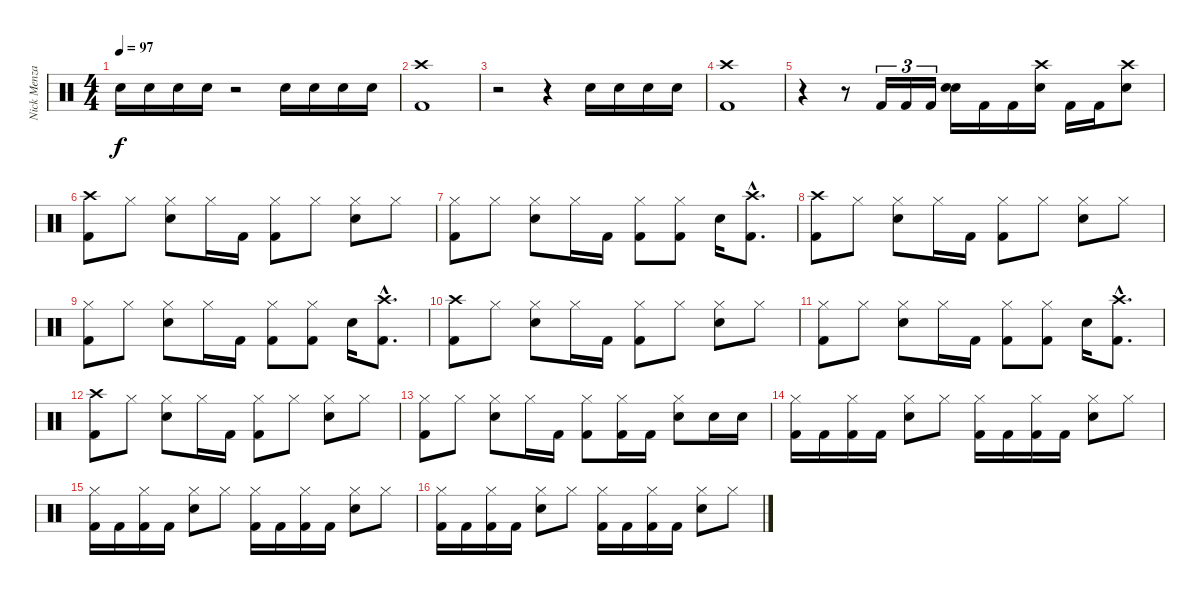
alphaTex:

\track ("Nick Menza" "Nick Menza") {instrument percussion}
\staff {score}
\articulation defaults
\ts (4 4)
\tempo 97
\clef neutral
\ks c "Electric Snare (hit)".16{dy f} "Electric Snare (hit)".16 "Electric Snare (hit)".16 "Electric Snare (hit)".16
r.2 "Electric Snare (hit)".16 "Electric Snare (hit)".16 "Electric Snare (hit)".16 "Electric Snare (hit)".16 |
("Crash high (hit)" "Kick (hit) 2").1 |
r.2 r.4 "Electric Snare (hit)".16 "Electric Snare (hit)".16 "Electric Snare (hit)".16 "Electric Snare (hit)".16 |
("Crash high (hit)" "Kick (hit) 2").1 |
r.4 r.8 "Kick (hit) 2".16{tu (3 2)} "Kick (hit) 2".16{tu (3 2)} "Kick (hit) 2".16{tu (3 2)} ("Electric Snare (hit)" "Electric Snare (hit)").16 "Kick (hit) 2".16 "Kick (hit) 2".16 ("Crash high (hit)" "Electric Snare (hit)").16 "Kick (hit) 2".16 "Kick (hit) 2".16 ("Crash high (hit)" "Electric Snare (hit)").8 |
("Crash high (hit)" "Kick (hit) 2").8 "Hi-Hat (closed)".8 ("Hi-Hat (closed)" "Electric Snare (hit)").8 "Hi-Hat (closed)".16 "Kick (hit) 2".16 ("Hi-Hat (closed)" "Kick (hit) 2").8 "Hi-Hat (closed)".8 ("Hi-Hat (closed)" "Electric Snare (hit)").8 "Hi-Hat (closed)".8 |
("Hi-Hat (closed)" "Kick (hit) 2").8 "Hi-Hat (closed)".8 ("Hi-Hat (closed)" "Electric Snare (hit)").8 "Hi-Hat (closed)".16 "Kick (hit) 2".16 ("Hi-Hat (closed)" "Kick (hit) 2").8 ("Hi-Hat (closed)" "Kick (hit) 2").8 "Electric Snare (hit)".16 ("Crash high (hit)"{hac} "Kick (hit) 2"{hac}).8{d} |
("Crash high (hit)" "Kick (hit) 2").8 "Hi-Hat (closed)".8 ("Hi-Hat (closed)" "Electric Snare (hit)").8 "Hi-Hat (closed)".16 "Kick (hit) 2".16 ("Hi-Hat (closed)" "Kick (hit) 2").8 "Hi-Hat (closed)".8 ("Hi-Hat (closed)" "Electric Snare (hit)").8 "Hi-Hat (closed)".8 |
("Hi-Hat (closed)" "Kick (hit) 2").8 "Hi-Hat (closed)".8 ("Hi-Hat (closed)" "Electric Snare (hit)").8 "Hi-Hat (closed)".16 "Kick (hit) 2".16 ("Hi-Hat (closed)" "Kick (hit) 2").8 ("Hi-Hat (closed)" "Kick (hit) 2").8 "Electric Snare (hit)".16 ("Crash high (hit)"{hac} "Kick (hit) 2"{hac}).8{d} |
("Crash high (hit)" "Kick (hit) 2").8 "Hi-Hat (closed)".8 ("Hi-Hat (closed)" "Electric Snare (hit)").8 "Hi-Hat (closed)".16 "Kick (hit) 2".16 ("Hi-Hat (closed)" "Kick (hit) 2").8 "Hi-Hat (closed)".8 ("Hi-Hat (closed)" "Electric Snare (hit)").8 "Hi-Hat (closed)".8 |
("Hi-Hat (closed)" "Kick (hit) 2").8 "Hi-Hat (closed)".8 ("Hi-Hat (closed)" "Electric Snare (hit)").8 "Hi-Hat (closed)".16 "Kick (hit) 2".16 ("Hi-Hat (closed)" "Kick (hit) 2").8 ("Hi-Hat (closed)" "Kick (hit) 2").8 "Electric Snare (hit)".16 ("Crash high (hit)"{hac} "Kick (hit) 2"{hac}).8{d} |
("Crash high (hit)" "Kick (hit) 2").8 "Hi-Hat (closed)".8 ("Hi-Hat (closed)" "Electric Snare (hit)").8 "Hi-Hat (closed)".16 "Kick (hit) 2".16 ("Hi-Hat (closed)" "Kick (hit) 2").8 "Hi-Hat (closed)".8 ("Hi-Hat (closed)" "Electric Snare (hit)").8 "Hi-Hat (closed)".8 |
("Hi-Hat (closed)" "Kick (hit) 2").8 "Hi-Hat (closed)".8 ("Hi-Hat (closed)" "Electric Snare (hit)").8 "Hi-Hat (closed)".16 "Kick (hit) 2".16 ("Hi-Hat (closed)" "Kick (hit) 2").8 ("Hi-Hat (closed)" "Kick (hit) 2").16 "Kick (hit) 2".16 ("Hi-Hat (closed)" "Electric Snare (hit)").8 "Electric Snare (hit)".16 "Electric Snare (hit)".16 |
("Hi-Hat (closed)" "Kick (hit) 2").16 "Kick (hit) 2".16 ("Hi-Hat (closed)" "Kick (hit) 2").16 "Kick (hit) 2".16 ("Hi-Hat (closed)" "Electric Snare (hit)").8 "Hi-Hat (closed)".8 ("Hi-Hat (closed)" "Kick (hit) 2").16 "Kick (hit) 2".16 ("Hi-Hat (closed)" "Kick (hit) 2").16 "Kick (hit) 2".16 ("Hi-Hat (closed)" "Electric Snare (hit)").8 "Hi-Hat (closed)".8 |
("Hi-Hat (closed)" "Kick (hit) 2").16 "Kick (hit) 2".16 ("Hi-Hat (closed)" "Kick (hit) 2").16 "Kick (hit) 2".16 ("Hi-Hat (closed)" "Electric Snare (hit)").8 "Hi-Hat (closed)".8 ("Hi-Hat (closed)" "Kick (hit) 2").16 "Kick (hit) 2".16 ("Hi-Hat (closed)" "Kick (hit) 2").16 "Kick (hit) 2".16 ("Hi-Hat (closed)" "Electric Snare (hit)").8 "Hi-Hat (closed)".8 |
("Hi-Hat (closed)" "Kick (hit) 2").16 "Kick (hit) 2".16 ("Hi-Hat (closed)" "Kick (hit) 2").16 "Kick (hit) 2".16 ("Hi-Hat (closed)" "Electric Snare (hit)").8 "Hi-Hat (closed)".8 ("Hi-Hat (closed)" "Kick (hit) 2").16 "Kick (hit) 2".16 ("Hi-Hat (closed)" "Kick (hit) 2").16 "Kick (hit) 2".16 ("Hi-Hat (closed)" "Electric Snare (hit)").8 "Hi-Hat (closed)".8
